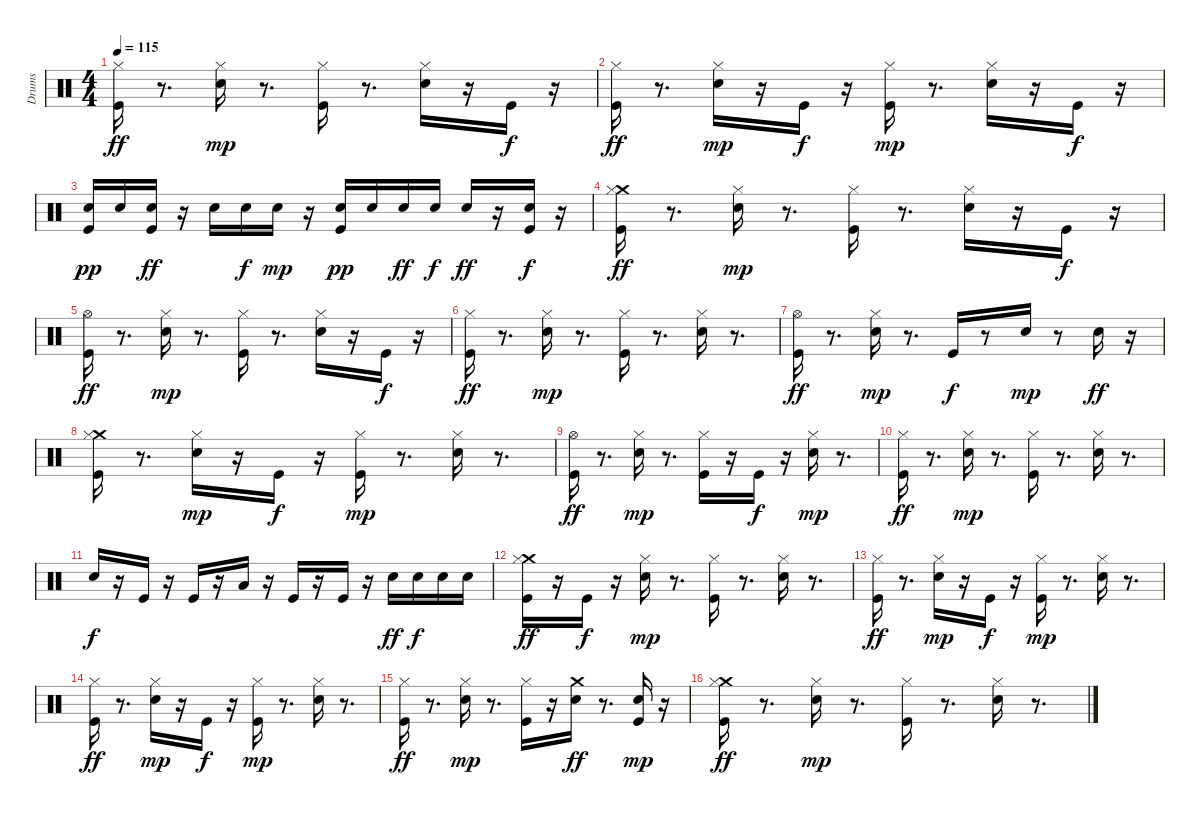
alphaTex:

\track ("Drums" "Drums") {instrument percussion}
\staff {score}
\articulation defaults
\ts (4 4)
\tempo 115
\clef neutral
\ks c
("Kick (hit)" "Hi-Hat (closed)").16{dy ff} r.8{d} ("Electric Snare (hit)" "Hi-Hat (closed)").16{dy mp} r.8{d} ("Kick (hit)" "Hi-Hat (closed)").16 r.8{d} ("Electric Snare (hit)" "Hi-Hat (closed)").16 r.16 "Kick (hit)".16{dy f} r.16 |
("Kick (hit)" "Hi-Hat (closed)").16{dy ff} r.8{d} ("Electric Snare (hit)" "Hi-Hat (closed)").16{dy mp} r.16 "Kick (hit)".16{dy f} r.16 ("Kick (hit)" "Hi-Hat (closed)").16{dy mp} r.8{d} ("Electric Snare (hit)" "Hi-Hat (closed)").16 r.16 "Kick (hit)".16{dy f} r.16 |
("Kick (hit)" "Electric Snare (hit)").16{dy pp} "Electric Snare (hit)".16 ("Kick (hit)" "Electric Snare (hit)").16{dy ff} r.16 "Electric Snare (hit)".16 "Electric Snare (hit)".16{dy f} "Electric Snare (hit)".16{dy mp} r.16 ("Kick (hit)" "Electric Snare (hit)").16{dy pp} "Electric Snare (hit)".16 "Electric Snare (hit)".16{dy ff} "Electric Snare (hit)".16{dy f} "Electric Snare (hit)".16{dy ff} r.16 ("Kick (hit)" "Electric Snare (hit)").16{dy f} r.16 |
("Crash medium (hit)" "Kick (hit)" "Hi-Hat (closed)").16{dy ff} r.8{d} ("Electric Snare (hit)" "Hi-Hat (closed)").16{dy mp} r.8{d} ("Kick (hit)" "Hi-Hat (closed)").16 r.8{d} ("Electric Snare (hit)" "Hi-Hat (closed)").16 r.16 "Kick (hit)".16{dy f} r.16 |
("Kick (hit)" "Hi-Hat (open)").16{dy ff} r.8{d} ("Electric Snare (hit)" "Hi-Hat (closed)").16{dy mp} r.8{d} ("Kick (hit)" "Hi-Hat (closed)").16 r.8{d} ("Electric Snare (hit)" "Hi-Hat (closed)").16 r.16 "Kick (hit)".16{dy f} r.16 |
("Kick (hit)" "Hi-Hat (closed)").16{dy ff} r.8{d} ("Electric Snare (hit)" "Hi-Hat (closed)").16{dy mp} r.8{d} ("Kick (hit)" "Hi-Hat (closed)").16 r.8{d} ("Electric Snare (hit)" "Hi-Hat (closed)").16 r.8{d} |
("Kick (hit)" "Hi-Hat (open)").16{dy ff} r.8{d} ("Electric Snare (hit)" "Hi-Hat (closed)").16{dy mp} r.8{d} "Kick (hit)".16{dy f} r.8 "Electric Snare (hit)".16{dy mp} r.8 "Electric Snare (hit)".16{dy ff} r.16 |
("Crash medium (hit)" "Kick (hit)" "Hi-Hat (closed)").16 r.8{d} ("Electric Snare (hit)" "Hi-Hat (closed)").16{dy mp} r.16 "Kick (hit)".16{dy f} r.16 ("Kick (hit)" "Hi-Hat (closed)").16{dy mp} r.8{d} ("Electric Snare (hit)" "Hi-Hat (closed)").16 r.8{d} |
("Kick (hit)" "Hi-Hat (open)").16{dy ff} r.8{d} ("Electric Snare (hit)" "Hi-Hat (closed)").16{dy mp} r.8{d} ("Kick (hit)" "Hi-Hat (closed)").16 r.16 "Kick (hit)".16{dy f} r.16 ("Electric Snare (hit)" "Hi-Hat (closed)").16{dy mp} r.8{d} |
("Kick (hit)" "Hi-Hat (closed)").16{dy ff} r.8{d} ("Electric Snare (hit)" "Hi-Hat (closed)").16{dy mp} r.8{d} ("Kick (hit)" "Hi-Hat (closed)").16 r.8{d} ("Electric Snare (hit)" "Hi-Hat (closed)").16 r.8{d} |
"Electric Snare (hit)".16{dy f} r.16 "Kick (hit)".16 r.16 "Kick (hit)".16 r.16 "Low Tom (hit)".16 r.16 "Kick (hit)".16 r.16 "Kick (hit)".16 r.16 "Electric Snare (hit)".16{dy ff} "Electric Snare (hit)".16{dy f} "Electric Snare (hit)".16 "Electric Snare (hit)".16 |
("Crash medium (hit)" "Kick (hit)" "Hi-Hat (closed)").16{dy ff} r.16 "Kick (hit)".16{dy f} r.16 ("Electric Snare (hit)" "Hi-Hat (closed)").16{dy mp} r.8{d} ("Kick (hit)" "Hi-Hat (closed)").16 r.8{d} ("Electric Snare (hit)" "Hi-Hat (closed)").16 r.8{d} |
("Kick (hit)" "Hi-Hat (closed)").16{dy ff} r.8{d} ("Electric Snare (hit)" "Hi-Hat (closed)").16{dy mp} r.16 "Kick (hit)".16{dy f} r.16 ("Kick (hit)" "Hi-Hat (closed)").16{dy mp} r.8{d} ("Electric Snare (hit)" "Hi-Hat (closed)").16 r.8{d} |
("Kick (hit)" "Hi-Hat (closed)").16{dy ff} r.8{d} ("Electric Snare (hit)" "Hi-Hat (closed)").16{dy mp} r.16 "Kick (hit)".16{dy f} r.16 ("Kick (hit)" "Hi-Hat (closed)").16{dy mp} r.8{d} ("Electric Snare (hit)" "Hi-Hat (closed)").16 r.8{d} |
("Kick (hit)" "Hi-Hat (closed)").16{dy ff} r.8{d} ("Electric Snare (hit)" "Hi-Hat (closed)").16{dy mp} r.8{d} ("Kick (hit)" "Hi-Hat (closed)").16 r.16 ("Electric Snare (hit)" "Crash medium (hit)").16{dy ff} r.8{d} ("Kick (hit)" "Electric Snare (hit)").16{dy mp} r.16 |
("Crash medium (hit)" "Kick (hit)" "Hi-Hat (closed)").16{dy ff} r.8{d} ("Electric Snare (hit)" "Hi-Hat (closed)").16{dy mp} r.8{d} ("Kick (hit)" "Hi-Hat (closed)").16 r.8{d} ("Electric Snare (hit)" "Hi-Hat (closed)").16 r.8{d}
